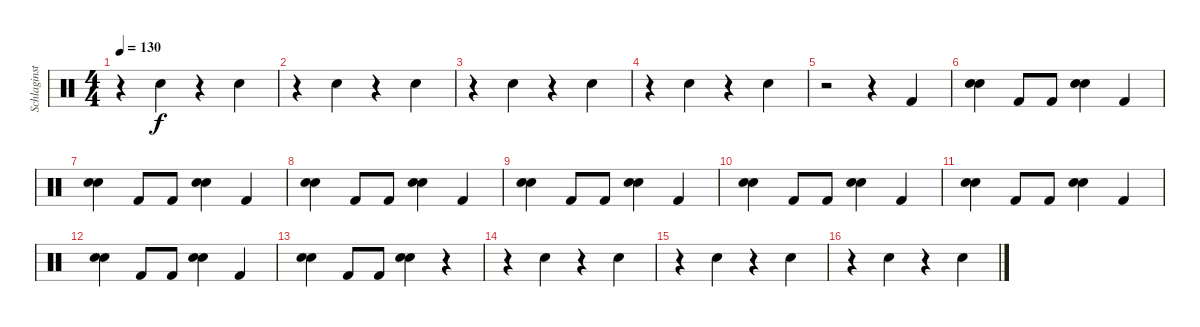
\track ("Schlaginstrumente - Auswahl" "Schlaginst") {instrument percussion}
\staff {score}
\articulation defaults
\ts (4 4)
\tempo 130
\clef neutral
\ks c
r.4{dy f} "Snare (hit) 2".4 r.4 "Snare (hit) 2".4 |
r.4 "Snare (hit) 2".4 r.4 "Snare (hit) 2".4 |
r.4 "Snare (hit) 2".4 r.4 "Snare (hit) 2".4 |
r.4 "Snare (hit) 2".4 r.4 "Snare (hit) 2".4 |
r.2 r.4 "Kick (hit) 2".4 |
("Snare (hit) 2" "Electric Snare (hit)").4 "Kick (hit) 2".8 "Kick (hit) 2".8 ("Snare (hit) 2" "Electric Snare (hit)").4 "Kick (hit) 2".4 |
("Snare (hit) 2" "Electric Snare (hit)").4 "Kick (hit) 2".8 "Kick (hit) 2".8 ("Snare (hit) 2" "Electric Snare (hit)").4 "Kick (hit) 2".4 |
("Snare (hit) 2" "Electric Snare (hit)").4 "Kick (hit) 2".8 "Kick (hit) 2".8 ("Snare (hit) 2" "Electric Snare (hit)").4 "Kick (hit) 2".4 |
("Snare (hit) 2" "Electric Snare (hit)").4 "Kick (hit) 2".8 "Kick (hit) 2".8 ("Snare (hit) 2" "Electric Snare (hit)").4 "Kick (hit) 2".4 |
("Snare (hit) 2" "Electric Snare (hit)").4 "Kick (hit) 2".8 "Kick (hit) 2".8 ("Snare (hit) 2" "Electric Snare (hit)").4 "Kick (hit) 2".4 |
("Snare (hit) 2" "Electric Snare (hit)").4 "Kick (hit) 2".8 "Kick (hit) 2".8 ("Snare (hit) 2" "Electric Snare (hit)").4 "Kick (hit) 2".4 |
("Snare (hit) 2" "Electric Snare (hit)").4 "Kick (hit) 2".8 "Kick (hit) 2".8 ("Snare (hit) 2" "Electric Snare (hit)").4 "Kick (hit) 2".4 |
("Snare (hit) 2" "Electric Snare (hit)").4 "Kick (hit) 2".8 "Kick (hit) 2".8 ("Snare (hit) 2" "Electric Snare (hit)").4 r.4 |
r.4 "Snare (hit) 2".4 r.4 "Snare (hit) 2".4 |
r.4 "Snare (hit) 2".4 r.4 "Snare (hit) 2".4 |
r.4 "Snare (hit) 2".4 r.4 "Snare (hit) 2".4
